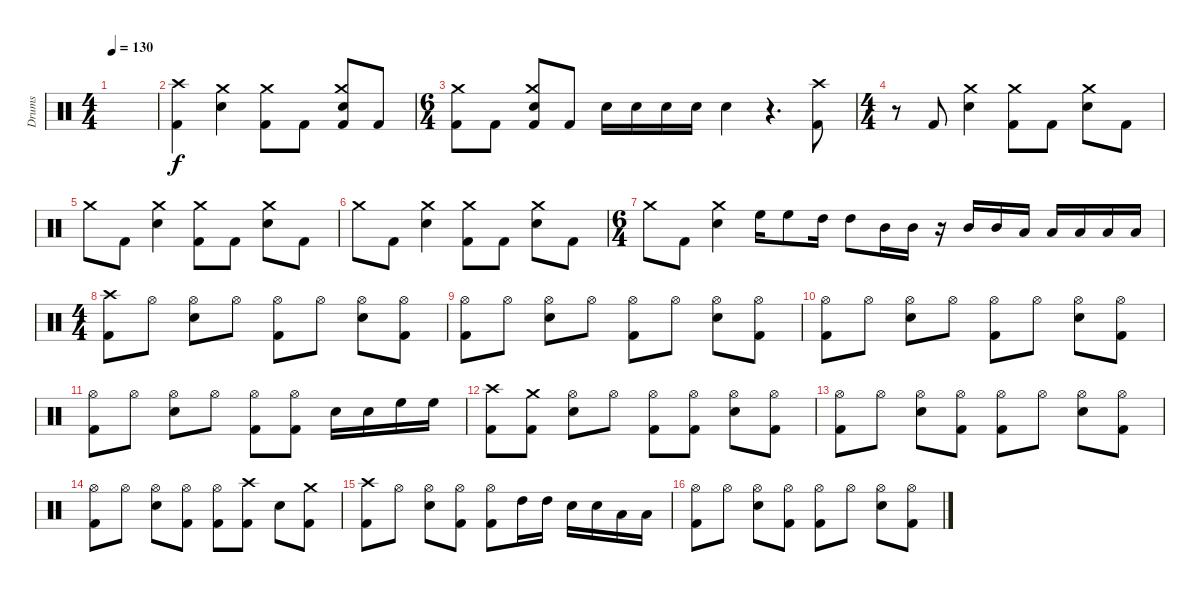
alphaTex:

\track ("Drums" "Drums") {instrument percussion}
\staff {score}
\articulation defaults
\ts (4 4)
\tempo 130
\clef neutral
\ks c
|
("Crash high (hit)" "Kick (hit) 2").4 ("Crash medium (hit)" "Electric Snare (hit)").4 ("Crash medium (hit)" "Kick (hit) 2").8 "Kick (hit) 2".8 ("Crash medium (hit)" "Electric Snare (hit)" "Kick (hit) 2").8 "Kick (hit) 2".8 |
\ts (6 4)
("Crash medium (hit)" "Kick (hit) 2").8 "Kick (hit) 2".8 ("Crash medium (hit)" "Electric Snare (hit)" "Kick (hit) 2").8 "Kick (hit) 2".8 "Electric Snare (hit)".16 "Electric Snare (hit)".16 "Electric Snare (hit)".16 "Electric Snare (hit)".16 "Electric Snare (hit)".4 r.4{d} ("Crash high (hit)" "Kick (hit) 2").8 |
\ts (4 4)
r.8 "Kick (hit) 2".8 ("Crash medium (hit)" "Electric Snare (hit)").4 ("Crash medium (hit)" "Kick (hit) 2").8 "Kick (hit) 2".8 ("Crash medium (hit)" "Electric Snare (hit)").8 "Kick (hit) 2".8 |
"Crash medium (hit)".8 "Kick (hit) 2".8 ("Crash medium (hit)" "Electric Snare (hit)").4 ("Crash medium (hit)" "Kick (hit) 2").8 "Kick (hit) 2".8 ("Crash medium (hit)" "Electric Snare (hit)").8 "Kick (hit) 2".8 |
"Crash medium (hit)".8 "Kick (hit) 2".8 ("Crash medium (hit)" "Electric Snare (hit)").4 ("Crash medium (hit)" "Kick (hit) 2").8 "Kick (hit) 2".8 ("Crash medium (hit)" "Electric Snare (hit)").8 "Kick (hit) 2".8 |
\ts (6 4)
"Crash medium (hit)".8 "Kick (hit) 2".8 ("Crash medium (hit)" "Electric Snare (hit)").4 "High Floor Tom (hit)".16 "High Floor Tom (hit)".8 "High Tom (hit)".16 "High Tom (hit)".8 "Mid Tom (hit)".16 "Mid Tom (hit)".16 r.16 "Mid Tom (hit)".16 "Mid Tom (hit)".16 "Low Tom (hit)".16 "Low Tom (hit)".16 "Low Tom (hit)".16 "Low Floor Tom (hit)".16 "Low Floor Tom (hit)".16 |
\ts (4 4)
("Crash high (hit)" "Kick (hit) 2").8 "Hi-Hat (open)".8 ("Hi-Hat (open)" "Electric Snare (hit)").8 "Hi-Hat (open)".8 ("Hi-Hat (open)" "Kick (hit) 2").8 "Hi-Hat (open)".8 ("Hi-Hat (open)" "Electric Snare (hit)").8 ("Hi-Hat (open)" "Kick (hit) 2").8 |
("Hi-Hat (open)" "Kick (hit) 2").8 "Hi-Hat (open)".8 ("Hi-Hat (open)" "Electric Snare (hit)").8 "Hi-Hat (open)".8 ("Hi-Hat (open)" "Kick (hit) 2").8 "Hi-Hat (open)".8 ("Hi-Hat (open)" "Electric Snare (hit)").8 ("Hi-Hat (open)" "Kick (hit) 2").8 |
("Hi-Hat (open)" "Kick (hit) 2").8 "Hi-Hat (open)".8 ("Hi-Hat (open)" "Electric Snare (hit)").8 "Hi-Hat (open)".8 ("Hi-Hat (open)" "Kick (hit) 2").8 "Hi-Hat (open)".8 ("Hi-Hat (open)" "Electric Snare (hit)").8 ("Hi-Hat (open)" "Kick (hit) 2").8 |
("Hi-Hat (open)" "Kick (hit) 2").8 "Hi-Hat (open)".8 ("Hi-Hat (open)" "Electric Snare (hit)").8 "Hi-Hat (open)".8 ("Hi-Hat (open)" "Kick (hit) 2").8 ("Hi-Hat (open)" "Kick (hit) 2").8 "Electric Snare (hit)".16 "Electric Snare (hit)".16 "High Floor Tom (hit)".16 "High Floor Tom (hit)".16 |
("Crash high (hit)" "Kick (hit) 2").8 ("Crash medium (hit)" "Kick (hit) 2").8 ("Hi-Hat (open)" "Electric Snare (hit)").8 "Hi-Hat (open)".8 ("Hi-Hat (open)" "Kick (hit) 2").8 ("Hi-Hat (open)" "Kick (hit) 2").8 ("Hi-Hat (open)" "Electric Snare (hit)").8 ("Hi-Hat (open)" "Kick (hit) 2").8 |
("Hi-Hat (open)" "Kick (hit) 2").8 "Hi-Hat (open)".8 ("Hi-Hat (open)" "Electric Snare (hit)").8 ("Hi-Hat (open)" "Kick (hit) 2").8 ("Hi-Hat (open)" "Kick (hit) 2").8 "Hi-Hat (open)".8 ("Hi-Hat (open)" "Electric Snare (hit)").8 ("Hi-Hat (open)" "Kick (hit) 2").8 |
("Hi-Hat (open)" "Kick (hit) 2").8 "Hi-Hat (open)".8 ("Hi-Hat (open)" "Electric Snare (hit)").8 ("Hi-Hat (open)" "Kick (hit) 2").8 ("Hi-Hat (open)" "Kick (hit) 2").8 ("Crash high (hit)" "Kick (hit) 2").8 "Electric Snare (hit)".8 ("Crash medium (hit)" "Kick (hit) 2").8 |
("Crash high (hit)" "Kick (hit) 2").8 "Hi-Hat (open)".8 ("Hi-Hat (open)" "Electric Snare (hit)").8 ("Hi-Hat (open)" "Kick (hit) 2").8 ("Hi-Hat (open)" "Kick (hit) 2").8 "High Tom (hit)".16 "High Tom (hit)".16 "Electric Snare (hit)".16 "Electric Snare (hit)".16 "Low Tom (hit)".16 "Low Tom (hit)".16 |
("Hi-Hat (open)" "Kick (hit) 2").8 "Hi-Hat (open)".8 ("Hi-Hat (open)" "Electric Snare (hit)").8 ("Hi-Hat (open)" "Kick (hit) 2").8 ("Hi-Hat (open)" "Kick (hit) 2").8 "Hi-Hat (open)".8 ("Hi-Hat (open)" "Electric Snare (hit)").8 ("Hi-Hat (open)" "Kick (hit) 2").8
